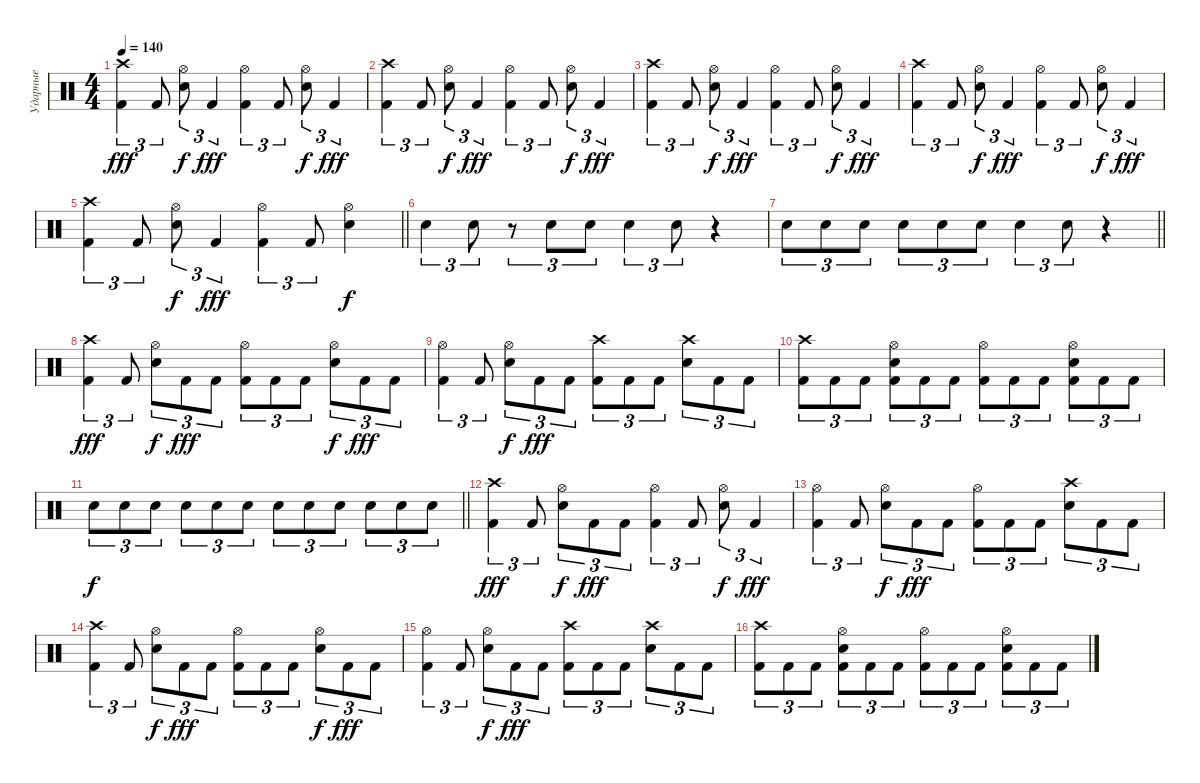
\track ("Ударные" "Ударные") {instrument percussion}
\staff {score}
\articulation defaults
\ts (4 4)
\tempo 140
\clef neutral
\ks c
("Kick (hit) 2" "Crash high (hit)").4{tu (3 2) dy fff} "Kick (hit) 2".8{tu (3 2)} ("Snare (hit) 2" "Hi-Hat (open)").8{tu (3 2) dy f} "Kick (hit) 2".4{tu (3 2) dy fff} ("Kick (hit) 2" "Hi-Hat (open)").4{tu (3 2)} "Kick (hit) 2".8{tu (3 2)} ("Snare (hit) 2" "Hi-Hat (open)").8{tu (3 2) dy f} "Kick (hit) 2".4{tu (3 2) dy fff} |
("Kick (hit) 2" "Crash high (hit)").4{tu (3 2)} "Kick (hit) 2".8{tu (3 2)} ("Snare (hit) 2" "Hi-Hat (open)").8{tu (3 2) dy f} "Kick (hit) 2".4{tu (3 2) dy fff} ("Kick (hit) 2" "Hi-Hat (open)").4{tu (3 2)} "Kick (hit) 2".8{tu (3 2)} ("Snare (hit) 2" "Hi-Hat (open)").8{tu (3 2) dy f} "Kick (hit) 2".4{tu (3 2) dy fff} |
("Kick (hit) 2" "Crash high (hit)").4{tu (3 2)} "Kick (hit) 2".8{tu (3 2)} ("Snare (hit) 2" "Hi-Hat (open)").8{tu (3 2) dy f} "Kick (hit) 2".4{tu (3 2) dy fff} ("Kick (hit) 2" "Hi-Hat (open)").4{tu (3 2)} "Kick (hit) 2".8{tu (3 2)} ("Snare (hit) 2" "Hi-Hat (open)").8{tu (3 2) dy f} "Kick (hit) 2".4{tu (3 2) dy fff} |
("Kick (hit) 2" "Crash high (hit)").4{tu (3 2)} "Kick (hit) 2".8{tu (3 2)} ("Snare (hit) 2" "Hi-Hat (open)").8{tu (3 2) dy f} "Kick (hit) 2".4{tu (3 2) dy fff} ("Kick (hit) 2" "Hi-Hat (open)").4{tu (3 2)} "Kick (hit) 2".8{tu (3 2)} ("Snare (hit) 2" "Hi-Hat (open)").8{tu (3 2) dy f} "Kick (hit) 2".4{tu (3 2) dy fff} |
\barLineRight lightlight
("Kick (hit) 2" "Crash high (hit)").4{tu (3 2)} "Kick (hit) 2".8{tu (3 2)} ("Snare (hit) 2" "Hi-Hat (open)").8{tu (3 2) dy f} "Kick (hit) 2".4{tu (3 2) dy fff} ("Kick (hit) 2" "Hi-Hat (open)").4{tu (3 2)} "Kick (hit) 2".8{tu (3 2)} ("Snare (hit) 2" "Hi-Hat (open)").4{dy f} |
"Snare (hit) 2".4{tu (3 2)} "Snare (hit) 2".8{tu (3 2)} r.8{tu (3 2)} "Snare (hit) 2".8{tu (3 2)} "Snare (hit) 2".8{tu (3 2)} "Snare (hit) 2".4{tu (3 2)} "Snare (hit) 2".8{tu (3 2)} r.4 |
\barLineRight lightlight "Snare (hit) 2".8{tu (3 2)} "Snare (hit) 2".8{tu (3 2)} "Snare (hit) 2".8{tu (3 2)} "Snare (hit) 2".8{tu (3 2)} "Snare (hit) 2".8{tu (3 2)} "Snare (hit) 2".8{tu (3 2)} "Snare (hit) 2".4{tu (3 2)} "Snare (hit) 2".8{tu (3 2)}
r.4 |
("Kick (hit) 2" "Crash high (hit)").4{tu (3 2) dy fff} "Kick (hit) 2".8{tu (3 2)} ("Snare (hit) 2" "Hi-Hat (open)").8{tu (3 2) dy f} "Kick (hit) 2".8{tu (3 2) dy fff} "Kick (hit) 2".8{tu (3 2)} ("Kick (hit) 2" "Hi-Hat (open)").8{tu (3 2)} "Kick (hit) 2".8{tu (3 2)} "Kick (hit) 2".8{tu (3 2)} ("Snare (hit) 2" "Hi-Hat (open)").8{tu (3 2) dy f} "Kick (hit) 2".8{tu (3 2) dy fff} "Kick (hit) 2".8{tu (3 2)} |
("Kick (hit) 2" "Hi-Hat (open)").4{tu (3 2)} "Kick (hit) 2".8{tu (3 2)} ("Snare (hit) 2" "Hi-Hat (open)").8{tu (3 2) dy f} "Kick (hit) 2".8{tu (3 2) dy fff} "Kick (hit) 2".8{tu (3 2)} ("Kick (hit) 2" "Crash high (hit)").8{tu (3 2)} "Kick (hit) 2".8{tu (3 2)} "Kick (hit) 2".8{tu (3 2)} ("Snare (hit) 2" "Crash high (hit)").8{tu (3 2)} "Kick (hit) 2".8{tu (3 2)} "Kick (hit) 2".8{tu (3 2)} |
("Kick (hit) 2" "Crash high (hit)").8{tu (3 2)} "Kick (hit) 2".8{tu (3 2)} "Kick (hit) 2".8{tu (3 2)} ("Kick (hit) 2" "Snare (hit) 2" "Hi-Hat (open)").8{tu (3 2)} "Kick (hit) 2".8{tu (3 2)} "Kick (hit) 2".8{tu (3 2)} ("Kick (hit) 2" "Hi-Hat (open)").8{tu (3 2)} "Kick (hit) 2".8{tu (3 2)} "Kick (hit) 2".8{tu (3 2)} ("Kick (hit) 2" "Snare (hit) 2" "Hi-Hat (open)").8{tu (3 2)} "Kick (hit) 2".8{tu (3 2)} "Kick (hit) 2".8{tu (3 2)} |
\barLineRight lightlight "Snare (hit) 2".8{tu (3 2) dy f} "Electric Snare (hit)".8{tu (3 2)} "Electric Snare (hit)".8{tu (3 2)} "Snare (hit) 2".8{tu (3 2)} "Electric Snare (hit)".8{tu (3 2)} "Electric Snare (hit)".8{tu (3 2)} "Snare (hit) 2".8{tu (3 2)} "Electric Snare (hit)".8{tu (3 2)} "Electric Snare (hit)".8{tu (3 2)} "Electric Snare (hit)".8{tu (3 2)} "Electric Snare (hit)".8{tu (3 2)} "Electric Snare (hit)".8{tu (3 2)}
|
("Kick (hit) 2" "Crash high (hit)").4{tu (3 2) dy fff} "Kick (hit) 2".8{tu (3 2)} ("Snare (hit) 2" "Hi-Hat (open)").8{tu (3 2) dy f} "Kick (hit) 2".8{tu (3 2) dy fff} "Kick (hit) 2".8{tu (3 2)} ("Kick (hit) 2" "Hi-Hat (open)").4{tu (3 2)} "Kick (hit) 2".8{tu (3 2)} ("Snare (hit) 2" "Hi-Hat (open)").8{tu (3 2) dy f} "Kick (hit) 2".4{tu (3 2) dy fff} |
("Kick (hit) 2" "Hi-Hat (open)").4{tu (3 2)} "Kick (hit) 2".8{tu (3 2)} ("Snare (hit) 2" "Hi-Hat (open)").8{tu (3 2) dy f} "Kick (hit) 2".8{tu (3 2) dy fff} "Kick (hit) 2".8{tu (3 2)} ("Kick (hit) 2" "Hi-Hat (open)").8{tu (3 2)} "Kick (hit) 2".8{tu (3 2)} "Kick (hit) 2".8{tu (3 2)} ("Snare (hit) 2" "Crash high (hit)").8{tu (3 2)} "Kick (hit) 2".8{tu (3 2)} "Kick (hit) 2".8{tu (3 2)} |
("Kick (hit) 2" "Crash high (hit)").4{tu (3 2)} "Kick (hit) 2".8{tu (3 2)} ("Snare (hit) 2" "Hi-Hat (open)").8{tu (3 2) dy f} "Kick (hit) 2".8{tu (3 2) dy fff} "Kick (hit) 2".8{tu (3 2)} ("Kick (hit) 2" "Hi-Hat (open)").8{tu (3 2)} "Kick (hit) 2".8{tu (3 2)} "Kick (hit) 2".8{tu (3 2)} ("Snare (hit) 2" "Hi-Hat (open)").8{tu (3 2) dy f} "Kick (hit) 2".8{tu (3 2) dy fff} "Kick (hit) 2".8{tu (3 2)} |
("Kick (hit) 2" "Hi-Hat (open)").4{tu (3 2)} "Kick (hit) 2".8{tu (3 2)} ("Snare (hit) 2" "Hi-Hat (open)").8{tu (3 2) dy f} "Kick (hit) 2".8{tu (3 2) dy fff} "Kick (hit) 2".8{tu (3 2)} ("Kick (hit) 2" "Crash high (hit)").8{tu (3 2)} "Kick (hit) 2".8{tu (3 2)} "Kick (hit) 2".8{tu (3 2)} ("Snare (hit) 2" "Crash high (hit)").8{tu (3 2)} "Kick (hit) 2".8{tu (3 2)} "Kick (hit) 2".8{tu (3 2)} |
("Kick (hit) 2" "Crash high (hit)").8{tu (3 2)} "Kick (hit) 2".8{tu (3 2)} "Kick (hit) 2".8{tu (3 2)} ("Kick (hit) 2" "Snare (hit) 2" "Hi-Hat (open)").8{tu (3 2)} "Kick (hit) 2".8{tu (3 2)} "Kick (hit) 2".8{tu (3 2)} ("Kick (hit) 2" "Hi-Hat (open)").8{tu (3 2)} "Kick (hit) 2".8{tu (3 2)} "Kick (hit) 2".8{tu (3 2)} ("Kick (hit) 2" "Snare (hit) 2" "Hi-Hat (open)").8{tu (3 2)} "Kick (hit) 2".8{tu (3 2)} "Kick (hit) 2".8{tu (3 2)}
